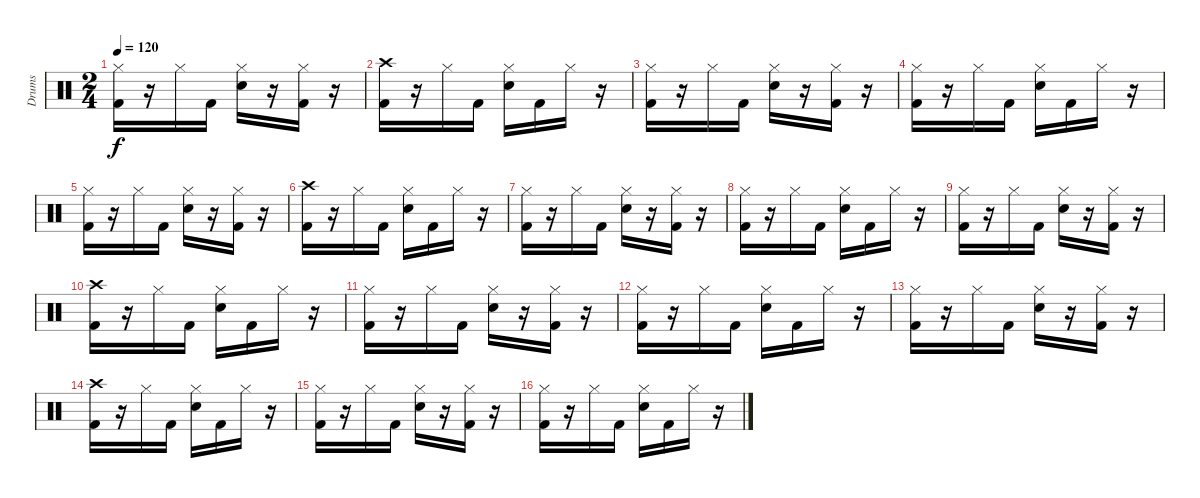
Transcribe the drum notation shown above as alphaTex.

\track ("Drums" "Drums") {instrument percussion}
\staff {score}
\articulation defaults
\ts (2 4)
\tempo 120
\clef neutral
\ks c
("Hi-Hat (closed)" "Kick (hit) 2").16{dy f} r.16 "Hi-Hat (closed)".16 "Kick (hit) 2".16 ("Hi-Hat (closed)" "Snare (hit) 2").16 r.16 ("Kick (hit) 2" "Hi-Hat (closed)").16 r.16 |
("Crash high (hit)" "Kick (hit) 2").16 r.16 "Hi-Hat (closed)".16 "Kick (hit) 2".16 ("Snare (hit) 2" "Hi-Hat (closed)").16 "Kick (hit) 2".16 "Hi-Hat (closed)".16 r.16 |
("Hi-Hat (closed)" "Kick (hit) 2").16 r.16 "Hi-Hat (closed)".16 "Kick (hit) 2".16 ("Hi-Hat (closed)" "Snare (hit) 2").16 r.16 ("Kick (hit) 2" "Hi-Hat (closed)").16 r.16 |
("Hi-Hat (closed)" "Kick (hit) 2").16 r.16 "Hi-Hat (closed)".16 "Kick (hit) 2".16 ("Hi-Hat (closed)" "Snare (hit) 2").16 "Kick (hit) 2".16 "Hi-Hat (closed)".16 r.16 |
("Hi-Hat (closed)" "Kick (hit) 2").16 r.16 "Hi-Hat (closed)".16 "Kick (hit) 2".16 ("Hi-Hat (closed)" "Snare (hit) 2").16 r.16 ("Kick (hit) 2" "Hi-Hat (closed)").16 r.16 |
("Crash high (hit)" "Kick (hit) 2").16 r.16 "Hi-Hat (closed)".16 "Kick (hit) 2".16 ("Snare (hit) 2" "Hi-Hat (closed)").16 "Kick (hit) 2".16 "Hi-Hat (closed)".16 r.16 |
("Hi-Hat (closed)" "Kick (hit) 2").16 r.16 "Hi-Hat (closed)".16 "Kick (hit) 2".16 ("Hi-Hat (closed)" "Snare (hit) 2").16 r.16 ("Kick (hit) 2" "Hi-Hat (closed)").16 r.16 |
("Hi-Hat (closed)" "Kick (hit) 2").16 r.16 "Hi-Hat (closed)".16 "Kick (hit) 2".16 ("Hi-Hat (closed)" "Snare (hit) 2").16 "Kick (hit) 2".16 "Hi-Hat (closed)".16 r.16 |
("Hi-Hat (closed)" "Kick (hit) 2").16 r.16 "Hi-Hat (closed)".16 "Kick (hit) 2".16 ("Hi-Hat (closed)" "Snare (hit) 2").16 r.16 ("Kick (hit) 2" "Hi-Hat (closed)").16 r.16 |
("Crash high (hit)" "Kick (hit) 2").16 r.16 "Hi-Hat (closed)".16 "Kick (hit) 2".16 ("Snare (hit) 2" "Hi-Hat (closed)").16 "Kick (hit) 2".16 "Hi-Hat (closed)".16 r.16 |
("Hi-Hat (closed)" "Kick (hit) 2").16 r.16 "Hi-Hat (closed)".16 "Kick (hit) 2".16 ("Hi-Hat (closed)" "Snare (hit) 2").16 r.16 ("Kick (hit) 2" "Hi-Hat (closed)").16 r.16 |
("Hi-Hat (closed)" "Kick (hit) 2").16 r.16 "Hi-Hat (closed)".16 "Kick (hit) 2".16 ("Hi-Hat (closed)" "Snare (hit) 2").16 "Kick (hit) 2".16 "Hi-Hat (closed)".16 r.16 |
("Hi-Hat (closed)" "Kick (hit) 2").16 r.16 "Hi-Hat (closed)".16 "Kick (hit) 2".16 ("Hi-Hat (closed)" "Snare (hit) 2").16 r.16 ("Kick (hit) 2" "Hi-Hat (closed)").16 r.16 |
("Crash high (hit)" "Kick (hit) 2").16 r.16 "Hi-Hat (closed)".16 "Kick (hit) 2".16 ("Snare (hit) 2" "Hi-Hat (closed)").16 "Kick (hit) 2".16 "Hi-Hat (closed)".16 r.16 |
("Hi-Hat (closed)" "Kick (hit) 2").16 r.16 "Hi-Hat (closed)".16 "Kick (hit) 2".16 ("Hi-Hat (closed)" "Snare (hit) 2").16 r.16 ("Kick (hit) 2" "Hi-Hat (closed)").16 r.16 |
("Hi-Hat (closed)" "Kick (hit) 2").16 r.16 "Hi-Hat (closed)".16 "Kick (hit) 2".16 ("Hi-Hat (closed)" "Snare (hit) 2").16 "Kick (hit) 2".16 "Hi-Hat (closed)".16 r.16
